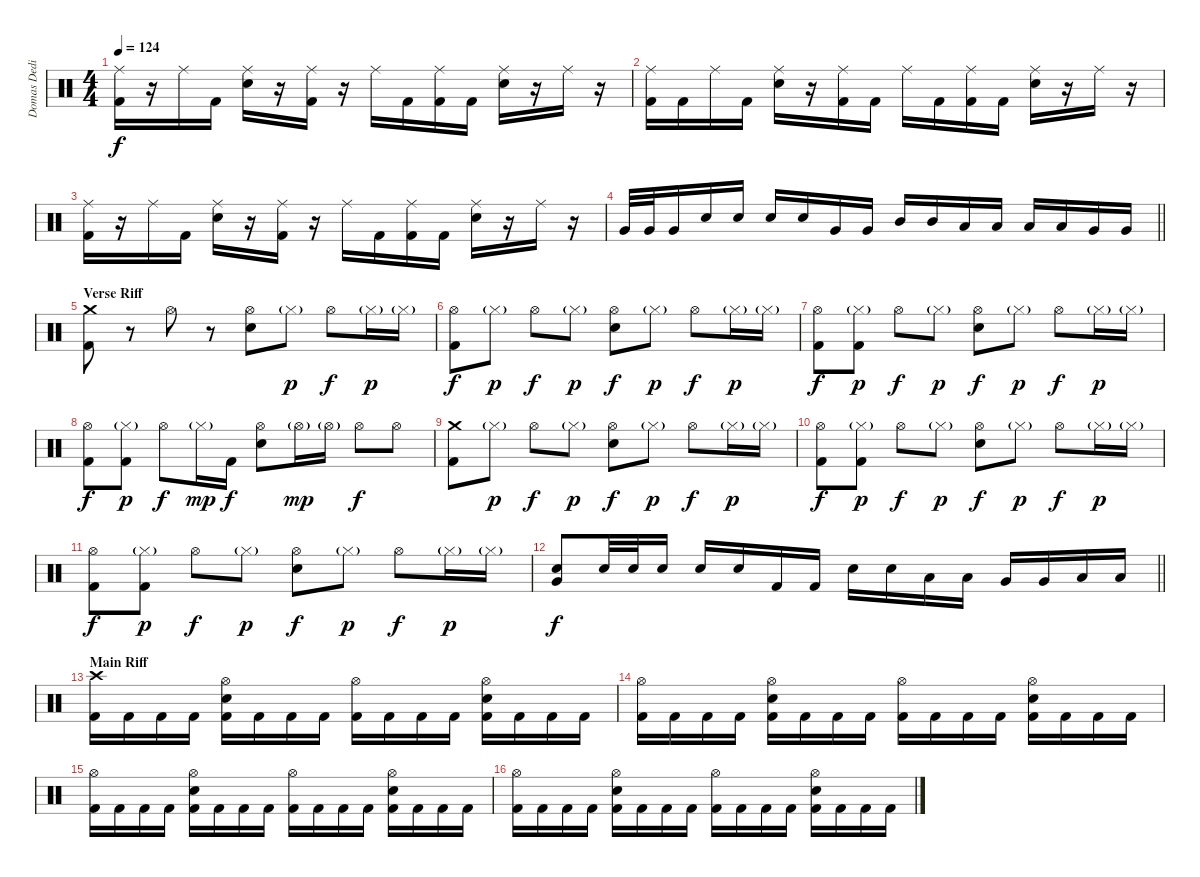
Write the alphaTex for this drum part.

\track ("Domas Dedinas" "Domas Dedi") {instrument percussion}
\staff {score}
\articulation defaults
\ts (4 4)
\tempo 124
\clef neutral
\ks c
("Ride (middle)" "Kick (hit) 2").16{dy f} r.16 "Ride (middle)".16 "Kick (hit) 2".16 ("Ride (middle)" "Snare (hit) 2").16 r.16 ("Ride (middle)" "Kick (hit) 2").16 r.16 "Ride (middle)".16 "Kick (hit) 2".16 ("Ride (middle)" "Kick (hit) 2").16 "Kick (hit) 2".16 ("Ride (middle)" "Snare (hit) 2").16 r.16 "Ride (middle)".16 r.16 |
("Ride (middle)" "Kick (hit) 2").16 "Kick (hit) 2".16 "Ride (middle)".16 "Kick (hit) 2".16 ("Ride (middle)" "Snare (hit) 2").16 r.16 ("Ride (middle)" "Kick (hit) 2").16 "Kick (hit) 2".16 "Ride (middle)".16 "Kick (hit) 2".16 ("Ride (middle)" "Kick (hit) 2").16 "Kick (hit) 2".16 ("Ride (middle)" "Snare (hit) 2").16 r.16 "Ride (middle)".16 r.16 |
("Ride (middle)" "Kick (hit) 2").16 r.16 "Ride (middle)".16 "Kick (hit) 2".16 ("Ride (middle)" "Snare (hit) 2").16 r.16 ("Ride (middle)" "Kick (hit) 2").16 r.16 "Ride (middle)".16 "Kick (hit) 2".16 ("Ride (middle)" "Kick (hit) 2").16 "Kick (hit) 2".16 ("Ride (middle)" "Snare (hit) 2").16 r.16 "Ride (middle)".16 r.16 |
\barLineRight lightlight "Very Low Tom (hit)".32 "Very Low Tom (hit)".32 "Very Low Tom (hit)".16 "Snare (hit) 2".16 "Snare (hit) 2".16 "Snare (hit) 2".16 "Snare (hit) 2".16 "Very Low Tom (hit)".16 "Very Low Tom (hit)".16 "Mid Tom (hit)".16 "Mid Tom (hit)".16 "Low Tom (hit)".16 "Low Tom (hit)".16 "Low Tom (hit)".16 "Low Tom (hit)".16 "Very Low Tom (hit)".16 "Very Low Tom (hit)".16
|
\section ("" "Verse Riff")
("Crash medium (hit)" "Kick (hit) 2").8 r.8 "Hi-Hat (open)".8 r.8 ("Hi-Hat (open)" "Snare (hit) 2").8 "Hi-Hat (closed)"{g}.8{dy p} "Hi-Hat (open)".8{dy f} "Hi-Hat (closed)"{g}.16{dy p} "Hi-Hat (closed)"{g}.16 |
("Hi-Hat (open)" "Kick (hit) 2").8{dy f} "Hi-Hat (closed)"{g}.8{dy p} "Hi-Hat (open)".8{dy f} "Hi-Hat (closed)"{g}.8{dy p} ("Hi-Hat (open)" "Snare (hit) 2").8{dy f} "Hi-Hat (closed)"{g}.8{dy p} "Hi-Hat (open)".8{dy f} "Hi-Hat (closed)"{g}.16{dy p} "Hi-Hat (closed)"{g}.16 |
("Hi-Hat (open)" "Kick (hit) 2").8{dy f} ("Hi-Hat (closed)"{g} "Kick (hit) 2").8{dy p} "Hi-Hat (open)".8{dy f} "Hi-Hat (closed)"{g}.8{dy p} ("Hi-Hat (open)" "Snare (hit) 2").8{dy f} "Hi-Hat (closed)"{g}.8{dy p} "Hi-Hat (open)".8{dy f} "Hi-Hat (closed)"{g}.16{dy p} "Hi-Hat (closed)"{g}.16 |
("Hi-Hat (open)" "Kick (hit) 2").8{dy f} ("Hi-Hat (closed)"{g} "Kick (hit) 2").8{dy p} "Hi-Hat (open)".8{dy f} "Hi-Hat (closed)"{g}.16{dy mp} "Kick (hit) 2".16{dy f} ("Hi-Hat (open)" "Snare (hit) 2").8 "Hi-Hat (open)"{g}.16{dy mp} "Hi-Hat (open)"{g}.16 "Hi-Hat (open)".8{dy f} "Hi-Hat (open)".8 |
("Crash medium (hit)" "Kick (hit) 2").8 "Hi-Hat (closed)"{g}.8{dy p} "Hi-Hat (open)".8{dy f} "Hi-Hat (closed)"{g}.8{dy p} ("Hi-Hat (open)" "Snare (hit) 2").8{dy f} "Hi-Hat (closed)"{g}.8{dy p} "Hi-Hat (open)".8{dy f} "Hi-Hat (closed)"{g}.16{dy p} "Hi-Hat (closed)"{g}.16 |
("Hi-Hat (open)" "Kick (hit) 2").8{dy f} ("Hi-Hat (closed)"{g} "Kick (hit) 2").8{dy p} "Hi-Hat (open)".8{dy f} "Hi-Hat (closed)"{g}.8{dy p} ("Hi-Hat (open)" "Snare (hit) 2").8{dy f} "Hi-Hat (closed)"{g}.8{dy p} "Hi-Hat (open)".8{dy f} "Hi-Hat (closed)"{g}.16{dy p} "Hi-Hat (closed)"{g}.16 |
("Hi-Hat (open)" "Kick (hit) 2").8{dy f} ("Hi-Hat (closed)"{g} "Kick (hit) 2").8{dy p} "Hi-Hat (open)".8{dy f} "Hi-Hat (closed)"{g}.8{dy p} ("Hi-Hat (open)" "Snare (hit) 2").8{dy f} "Hi-Hat (closed)"{g}.8{dy p} "Hi-Hat (open)".8{dy f} "Hi-Hat (closed)"{g}.16{dy p} "Hi-Hat (closed)"{g}.16 |
\barLineRight lightlight
("Very Low Tom (hit)" "Snare (hit) 2").8{dy f} "Snare (hit) 2".32 "Snare (hit) 2".32 "Snare (hit) 2".16 "Snare (hit) 2".16 "Snare (hit) 2".16 "Kick (hit) 2".16 "Kick (hit) 2".16 "Snare (hit) 2".16 "Snare (hit) 2".16 "Low Tom (hit)".16 "Low Tom (hit)".16 "Very Low Tom (hit)".16 "Very Low Tom (hit)".16 "Low Floor Tom (hit)".16 "Low Floor Tom (hit)".16 |
\section ("" "Main Riff")
("Crash high (hit)" "Kick (hit) 2").16 "Kick (hit) 2".16 "Kick (hit) 2".16 "Kick (hit) 2".16 ("Hi-Hat (open)" "Snare (hit) 2" "Kick (hit) 2").16 "Kick (hit) 2".16 "Kick (hit) 2".16 "Kick (hit) 2".16 ("Hi-Hat (open)" "Kick (hit) 2").16 "Kick (hit) 2".16 "Kick (hit) 2".16 "Kick (hit) 2".16 ("Hi-Hat (open)" "Snare (hit) 2" "Kick (hit) 2").16 "Kick (hit) 2".16 "Kick (hit) 2".16 "Kick (hit) 2".16 |
("Hi-Hat (open)" "Kick (hit) 2").16 "Kick (hit) 2".16 "Kick (hit) 2".16 "Kick (hit) 2".16 ("Hi-Hat (open)" "Snare (hit) 2" "Kick (hit) 2").16 "Kick (hit) 2".16 "Kick (hit) 2".16 "Kick (hit) 2".16 ("Hi-Hat (open)" "Kick (hit) 2").16 "Kick (hit) 2".16 "Kick (hit) 2".16 "Kick (hit) 2".16 ("Hi-Hat (open)" "Snare (hit) 2" "Kick (hit) 2").16 "Kick (hit) 2".16 "Kick (hit) 2".16 "Kick (hit) 2".16 |
("Hi-Hat (open)" "Kick (hit) 2").16 "Kick (hit) 2".16 "Kick (hit) 2".16 "Kick (hit) 2".16 ("Hi-Hat (open)" "Snare (hit) 2" "Kick (hit) 2").16 "Kick (hit) 2".16 "Kick (hit) 2".16 "Kick (hit) 2".16 ("Hi-Hat (open)" "Kick (hit) 2").16 "Kick (hit) 2".16 "Kick (hit) 2".16 "Kick (hit) 2".16 ("Hi-Hat (open)" "Snare (hit) 2" "Kick (hit) 2").16 "Kick (hit) 2".16 "Kick (hit) 2".16 "Kick (hit) 2".16 |
("Hi-Hat (open)" "Kick (hit) 2").16 "Kick (hit) 2".16 "Kick (hit) 2".16 "Kick (hit) 2".16 ("Hi-Hat (open)" "Snare (hit) 2" "Kick (hit) 2").16 "Kick (hit) 2".16 "Kick (hit) 2".16 "Kick (hit) 2".16 ("Hi-Hat (open)" "Kick (hit) 2").16 "Kick (hit) 2".16 "Kick (hit) 2".16 "Kick (hit) 2".16 ("Hi-Hat (open)" "Snare (hit) 2" "Kick (hit) 2").16 "Kick (hit) 2".16 "Kick (hit) 2".16 "Kick (hit) 2".16
